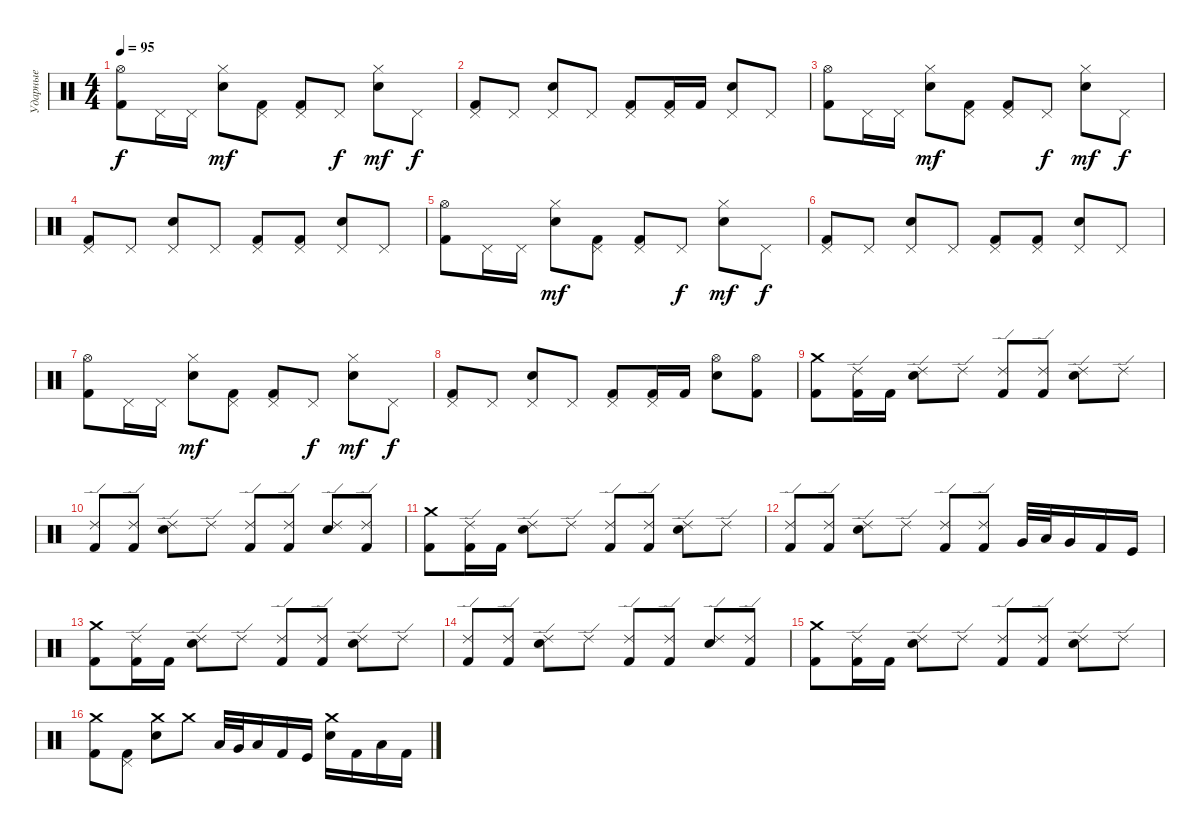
\track ("Ударные" "Ударные") {instrument percussion}
\staff {score}
\articulation defaults
\ts (4 4)
\tempo 95
\clef neutral
\ks c
("Kick (hit) 2" "Hi-Hat (open)").8{dy f} "Pedal Hi-Hat (hit)".16 "Pedal Hi-Hat (hit)".16 ("Hi-Hat (closed)" "Electric Snare (hit)").8{dy mf} ("Pedal Hi-Hat (hit)" "Kick (hit) 2").8 ("Pedal Hi-Hat (hit)" "Kick (hit) 2").8 "Pedal Hi-Hat (hit)".8{dy f} ("Hi-Hat (closed)" "Electric Snare (hit)").8{dy mf} "Pedal Hi-Hat (hit)".8{dy f} |
("Pedal Hi-Hat (hit)" "Kick (hit) 2").8 "Pedal Hi-Hat (hit)".8 ("Pedal Hi-Hat (hit)" "Electric Snare (hit)").8 "Pedal Hi-Hat (hit)".8 ("Pedal Hi-Hat (hit)" "Kick (hit) 2").8 ("Pedal Hi-Hat (hit)" "Kick (hit) 2").16 "Kick (hit) 2".16 ("Pedal Hi-Hat (hit)" "Electric Snare (hit)").8 "Pedal Hi-Hat (hit)".8 |
("Kick (hit) 2" "Hi-Hat (open)").8 "Pedal Hi-Hat (hit)".16 "Pedal Hi-Hat (hit)".16 ("Hi-Hat (closed)" "Electric Snare (hit)").8{dy mf} ("Pedal Hi-Hat (hit)" "Kick (hit) 2").8 ("Pedal Hi-Hat (hit)" "Kick (hit) 2").8 "Pedal Hi-Hat (hit)".8{dy f} ("Hi-Hat (closed)" "Electric Snare (hit)").8{dy mf} "Pedal Hi-Hat (hit)".8{dy f} |
("Pedal Hi-Hat (hit)" "Kick (hit) 2").8 "Pedal Hi-Hat (hit)".8 ("Pedal Hi-Hat (hit)" "Electric Snare (hit)").8 "Pedal Hi-Hat (hit)".8 ("Pedal Hi-Hat (hit)" "Kick (hit) 2").8 ("Pedal Hi-Hat (hit)" "Kick (hit) 2").8 ("Pedal Hi-Hat (hit)" "Electric Snare (hit)").8 "Pedal Hi-Hat (hit)".8 |
("Kick (hit) 2" "Hi-Hat (open)").8 "Pedal Hi-Hat (hit)".16 "Pedal Hi-Hat (hit)".16 ("Hi-Hat (closed)" "Electric Snare (hit)").8{dy mf} ("Pedal Hi-Hat (hit)" "Kick (hit) 2").8 ("Pedal Hi-Hat (hit)" "Kick (hit) 2").8 "Pedal Hi-Hat (hit)".8{dy f} ("Hi-Hat (closed)" "Electric Snare (hit)").8{dy mf} "Pedal Hi-Hat (hit)".8{dy f} |
("Pedal Hi-Hat (hit)" "Kick (hit) 2").8 "Pedal Hi-Hat (hit)".8 ("Pedal Hi-Hat (hit)" "Electric Snare (hit)").8 "Pedal Hi-Hat (hit)".8 ("Pedal Hi-Hat (hit)" "Kick (hit) 2").8 ("Pedal Hi-Hat (hit)" "Kick (hit) 2").8 ("Pedal Hi-Hat (hit)" "Electric Snare (hit)").8 "Pedal Hi-Hat (hit)".8 |
("Kick (hit) 2" "Hi-Hat (open)").8 "Pedal Hi-Hat (hit)".16 "Pedal Hi-Hat (hit)".16 ("Hi-Hat (closed)" "Electric Snare (hit)").8{dy mf} ("Pedal Hi-Hat (hit)" "Kick (hit) 2").8 ("Pedal Hi-Hat (hit)" "Kick (hit) 2").8 "Pedal Hi-Hat (hit)".8{dy f} ("Hi-Hat (closed)" "Electric Snare (hit)").8{dy mf} "Pedal Hi-Hat (hit)".8{dy f} |
("Pedal Hi-Hat (hit)" "Kick (hit) 2").8 "Pedal Hi-Hat (hit)".8 ("Pedal Hi-Hat (hit)" "Electric Snare (hit)").8 "Pedal Hi-Hat (hit)".8 ("Pedal Hi-Hat (hit)" "Kick (hit) 2").8 ("Pedal Hi-Hat (hit)" "Kick (hit) 2").16 "Kick (hit) 2".16 ("Hi-Hat (open)" "Electric Snare (hit)").8 ("Hi-Hat (open)" "Kick (hit) 2").8 |
("Kick (hit) 2" "Crash medium (hit)").8 ("Kick (hit) 2" "Ride (edge) 2").16 "Kick (hit) 2".16 ("Electric Snare (hit)" "Ride (edge) 2").8 "Ride (edge) 2".8 ("Kick (hit) 2" "Ride (edge) 2").8 ("Kick (hit) 2" "Ride (edge) 2").8 ("Electric Snare (hit)" "Ride (edge) 2").8 "Ride (edge) 2".8 |
("Kick (hit) 2" "Ride (edge) 2").8 ("Kick (hit) 2" "Ride (edge) 2").8 ("Electric Snare (hit)" "Ride (edge) 2").8 "Ride (edge) 2".8 ("Kick (hit) 2" "Ride (edge) 2").8 ("Kick (hit) 2" "Ride (edge) 2").8 ("Electric Snare (hit)" "Ride (edge) 2").8 ("Kick (hit) 2" "Ride (edge) 2").8 |
("Kick (hit) 2" "Crash medium (hit)").8 ("Kick (hit) 2" "Ride (edge) 2").16 "Kick (hit) 2".16 ("Electric Snare (hit)" "Ride (edge) 2").8 "Ride (edge) 2".8 ("Kick (hit) 2" "Ride (edge) 2").8 ("Kick (hit) 2" "Ride (edge) 2").8 ("Electric Snare (hit)" "Ride (edge) 2").8 "Ride (edge) 2".8 |
("Kick (hit) 2" "Ride (edge) 2").8 ("Kick (hit) 2" "Ride (edge) 2").8 ("Electric Snare (hit)" "Ride (edge) 2").8 "Ride (edge) 2".8 ("Kick (hit) 2" "Ride (edge) 2").8 ("Kick (hit) 2" "Ride (edge) 2").8 "Very Low Tom (hit)".32 "Low Tom (hit)".32 "Very Low Tom (hit)".16 "Kick (hit) 2".16 "Kick (hit)".16 |
("Kick (hit) 2" "Crash medium (hit)").8 ("Kick (hit) 2" "Ride (edge) 2").16 "Kick (hit) 2".16 ("Electric Snare (hit)" "Ride (edge) 2").8 "Ride (edge) 2".8 ("Kick (hit) 2" "Ride (edge) 2").8 ("Kick (hit) 2" "Ride (edge) 2").8 ("Electric Snare (hit)" "Ride (edge) 2").8 "Ride (edge) 2".8 |
("Kick (hit) 2" "Ride (edge) 2").8 ("Kick (hit) 2" "Ride (edge) 2").8 ("Electric Snare (hit)" "Ride (edge) 2").8 "Ride (edge) 2".8 ("Kick (hit) 2" "Ride (edge) 2").8 ("Kick (hit) 2" "Ride (edge) 2").8 ("Electric Snare (hit)" "Ride (edge) 2").8 ("Kick (hit) 2" "Ride (edge) 2").8 |
("Kick (hit) 2" "Crash medium (hit)").8 ("Kick (hit) 2" "Ride (edge) 2").16 "Kick (hit) 2".16 ("Electric Snare (hit)" "Ride (edge) 2").8 "Ride (edge) 2".8 ("Kick (hit) 2" "Ride (edge) 2").8 ("Kick (hit) 2" "Ride (edge) 2").8 ("Electric Snare (hit)" "Ride (edge) 2").8 "Ride (edge) 2".8 |
("Kick (hit) 2" "Crash medium (hit)").8 ("Kick (hit) 2" "Pedal Hi-Hat (hit)").8 ("Electric Snare (hit)" "Crash medium (hit)").8 "Crash medium (hit)".8 "Low Tom (hit)".32 "Very Low Tom (hit)".32 "Low Floor Tom (hit)".16 "Kick (hit) 2".16 "Kick (hit)".16 ("Crash medium (hit)" "Electric Snare (hit)").16 "Kick (hit) 2".16 "Low Tom (hit)".16 "Kick (hit) 2".16
